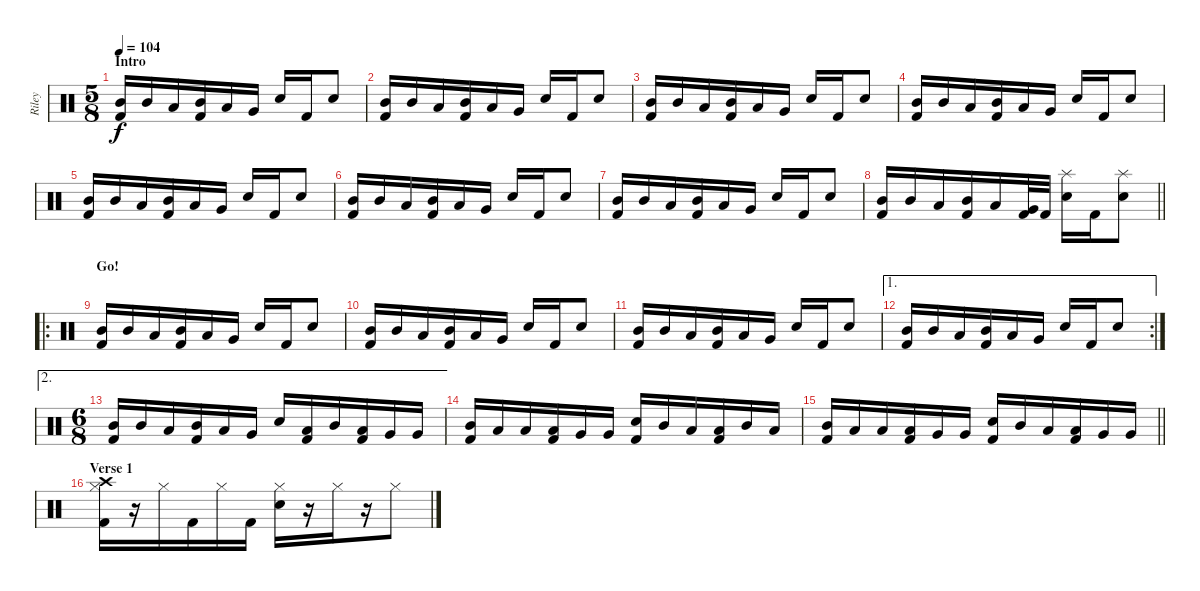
\track ("Riley" "Riley") {instrument percussion}
\staff {score}
\articulation defaults
\ts (5 8)
\section ("" "Intro")
\tempo 104
\clef neutral
\ks c
("Mid Tom (hit)" "Kick (hit) 2").16{dy f} "Mid Tom (hit)".16 "Low Tom (hit)".16 ("Mid Tom (hit)" "Kick (hit) 2").16 "Low Tom (hit)".16 "Very Low Tom (hit)".16 "Electric Snare (hit)".16 "Kick (hit) 2".16 "Electric Snare (hit)".8 |
("Mid Tom (hit)" "Kick (hit) 2").16 "Mid Tom (hit)".16 "Low Tom (hit)".16 ("Mid Tom (hit)" "Kick (hit) 2").16 "Low Tom (hit)".16 "Very Low Tom (hit)".16 "Electric Snare (hit)".16 "Kick (hit) 2".16 "Electric Snare (hit)".8 |
("Mid Tom (hit)" "Kick (hit) 2").16 "Mid Tom (hit)".16 "Low Tom (hit)".16 ("Mid Tom (hit)" "Kick (hit) 2").16 "Low Tom (hit)".16 "Very Low Tom (hit)".16 "Electric Snare (hit)".16 "Kick (hit) 2".16 "Electric Snare (hit)".8 |
("Mid Tom (hit)" "Kick (hit) 2").16 "Mid Tom (hit)".16 "Low Tom (hit)".16 ("Mid Tom (hit)" "Kick (hit) 2").16 "Low Tom (hit)".16 "Very Low Tom (hit)".16 "Electric Snare (hit)".16 "Kick (hit) 2".16 "Electric Snare (hit)".8 |
("Mid Tom (hit)" "Kick (hit) 2").16 "Mid Tom (hit)".16 "Low Tom (hit)".16 ("Mid Tom (hit)" "Kick (hit) 2").16 "Low Tom (hit)".16 "Very Low Tom (hit)".16 "Electric Snare (hit)".16 "Kick (hit) 2".16 "Electric Snare (hit)".8 |
("Mid Tom (hit)" "Kick (hit) 2").16 "Mid Tom (hit)".16 "Low Tom (hit)".16 ("Mid Tom (hit)" "Kick (hit) 2").16 "Low Tom (hit)".16 "Very Low Tom (hit)".16 "Electric Snare (hit)".16 "Kick (hit) 2".16 "Electric Snare (hit)".8 |
("Mid Tom (hit)" "Kick (hit) 2").16 "Mid Tom (hit)".16 "Low Tom (hit)".16 ("Mid Tom (hit)" "Kick (hit) 2").16 "Low Tom (hit)".16 "Very Low Tom (hit)".16 "Electric Snare (hit)".16 "Kick (hit) 2".16 "Electric Snare (hit)".8 |
\barLineRight lightlight
("Mid Tom (hit)" "Kick (hit) 2").16 "Mid Tom (hit)".16 "Low Tom (hit)".16 ("Mid Tom (hit)" "Kick (hit) 2").16 "Low Tom (hit)".16 ("Very Low Tom (hit)" "Kick (hit) 2").32 "Kick (hit) 2".32 ("Splash (hit)" "Electric Snare (hit)").16 "Kick (hit) 2".16 ("Splash (hit)" "Electric Snare (hit)").8 |
\ro
\section ("" "Go!")
("Mid Tom (hit)" "Kick (hit) 2").16 "Mid Tom (hit)".16 "Low Tom (hit)".16 ("Mid Tom (hit)" "Kick (hit) 2").16 "Low Tom (hit)".16 "Very Low Tom (hit)".16 "Electric Snare (hit)".16 "Kick (hit) 2".16 "Electric Snare (hit)".8 |
("Mid Tom (hit)" "Kick (hit) 2").16 "Mid Tom (hit)".16 "Low Tom (hit)".16 ("Mid Tom (hit)" "Kick (hit) 2").16 "Low Tom (hit)".16 "Very Low Tom (hit)".16 "Electric Snare (hit)".16 "Kick (hit) 2".16 "Electric Snare (hit)".8 |
("Mid Tom (hit)" "Kick (hit) 2").16 "Mid Tom (hit)".16 "Low Tom (hit)".16 ("Mid Tom (hit)" "Kick (hit) 2").16 "Low Tom (hit)".16 "Very Low Tom (hit)".16 "Electric Snare (hit)".16 "Kick (hit) 2".16 "Electric Snare (hit)".8 |
\ae 1
\rc 2
("Mid Tom (hit)" "Kick (hit) 2").16 "Mid Tom (hit)".16 "Low Tom (hit)".16 ("Mid Tom (hit)" "Kick (hit) 2").16 "Low Tom (hit)".16 "Very Low Tom (hit)".16 "Electric Snare (hit)".16 "Kick (hit) 2".16 "Electric Snare (hit)".8 |
\ae 2
\ts (6 8)
("Mid Tom (hit)" "Kick (hit) 2").16 "Mid Tom (hit)".16 "Low Tom (hit)".16 ("Mid Tom (hit)" "Kick (hit) 2").16 "Low Tom (hit)".16 "Very Low Tom (hit)".16 "Electric Snare (hit)".16 ("Low Tom (hit)" "Kick (hit) 2").16 "Mid Tom (hit)".16 ("Low Tom (hit)" "Kick (hit) 2").16 "Very Low Tom (hit)".16 "Very Low Tom (hit)".16 |
("Mid Tom (hit)" "Kick (hit) 2").16 "Low Tom (hit)".16 "Low Tom (hit)".16 ("Low Tom (hit)" "Kick (hit) 2").16 "Very Low Tom (hit)".16 "Very Low Tom (hit)".16 ("Electric Snare (hit)" "Kick (hit) 2").16 "Mid Tom (hit)".16 "Low Tom (hit)".16 ("Low Tom (hit)" "Kick (hit) 2").16 "Mid Tom (hit)".16 "Low Tom (hit)".16 |
\barLineRight lightlight
("Mid Tom (hit)" "Kick (hit) 2").16 "Low Tom (hit)".16 "Low Tom (hit)".16 ("Low Tom (hit)" "Kick (hit) 2").16 "Very Low Tom (hit)".16 "Very Low Tom (hit)".16 ("Electric Snare (hit)" "Kick (hit) 2").16 "Mid Tom (hit)".16 "Low Tom (hit)".16 ("Low Tom (hit)" "Kick (hit) 2").16 "Very Low Tom (hit)".16 "Very Low Tom (hit)".16 |
\section ("" "Verse 1")
("Crash high (hit)" "Hi-Hat (closed)" "Kick (hit) 2").16 r.16 "Hi-Hat (closed)".16 "Kick (hit) 2".16 "Hi-Hat (closed)".16 "Kick (hit) 2".16 ("Hi-Hat (closed)" "Electric Snare (hit)").16 r.16 "Hi-Hat (closed)".16 r.16 "Hi-Hat (closed)".8
